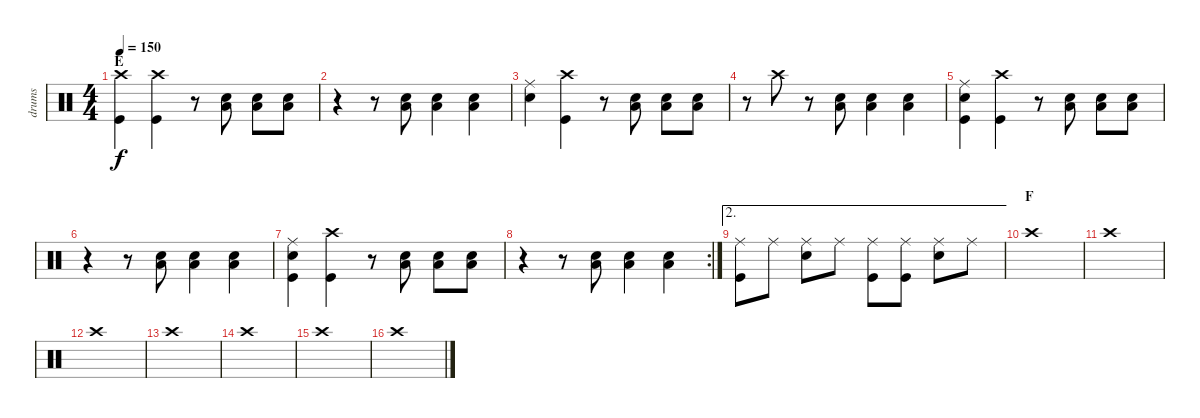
\track ("drums" "drums") {instrument percussion}
\staff {score}
\articulation defaults
\ts (4 4)
\section ("" "E")
\tempo 150
\clef neutral
\ks c
("Crash high (hit)" "Kick (hit)").4{dy f} ("Crash high (hit)" "Kick (hit)").4 r.8 ("Snare (hit) 2" "Low Tom (hit)").8 ("Snare (hit) 2" "Low Tom (hit)").8 ("Snare (hit) 2" "Low Tom (hit)").8 |
r.4 r.8 ("Snare (hit) 2" "Low Tom (hit)").8 ("Snare (hit) 2" "Low Tom (hit)").4 ("Snare (hit) 2" "Low Tom (hit)").4 |
("Ride (middle)" "Snare (hit) 2").4 ("Crash high (hit)" "Kick (hit)").4 r.8 ("Snare (hit) 2" "Low Tom (hit)").8 ("Snare (hit) 2" "Low Tom (hit)").8 ("Snare (hit) 2" "Low Tom (hit)").8 |
r.8 "Crash high (hit)".8 r.8 ("Snare (hit) 2" "Low Tom (hit)").8 ("Snare (hit) 2" "Low Tom (hit)").4 ("Snare (hit) 2" "Low Tom (hit)").4 |
("Ride (middle)" "Snare (hit) 2" "Kick (hit)").4 ("Crash high (hit)" "Kick (hit)").4 r.8 ("Snare (hit) 2" "Low Tom (hit)").8 ("Snare (hit) 2" "Low Tom (hit)").8 ("Snare (hit) 2" "Low Tom (hit)").8 |
r.4 r.8 ("Snare (hit) 2" "Low Tom (hit)").8 ("Snare (hit) 2" "Low Tom (hit)").4 ("Snare (hit) 2" "Low Tom (hit)").4 |
("Ride (middle)" "Snare (hit) 2" "Kick (hit)").4 ("Crash high (hit)" "Kick (hit)").4 r.8 ("Snare (hit) 2" "Low Tom (hit)").8 ("Snare (hit) 2" "Low Tom (hit)").8 ("Snare (hit) 2" "Low Tom (hit)").8 |
\rc 2
r.4 r.8 ("Snare (hit) 2" "Low Tom (hit)").8 ("Snare (hit) 2" "Low Tom (hit)").4 ("Snare (hit) 2" "Low Tom (hit)").4 |
\ae 2
("Ride (middle)" "Kick (hit)").8 "Ride (middle)".8 ("Ride (middle)" "Snare (hit) 2").8 "Ride (middle)".8 ("Ride (middle)" "Kick (hit)").8 ("Ride (middle)" "Kick (hit)").8 ("Ride (middle)" "Snare (hit) 2").8 "Ride (middle)".8 |
\section ("" "F")
"Crash high (hit)".1 |
"Crash high (hit)".1 |
"Crash high (hit)".1 |
"Crash high (hit)".1 |
"Crash high (hit)".1 |
"Crash high (hit)".1 |
"Crash high (hit)".1
